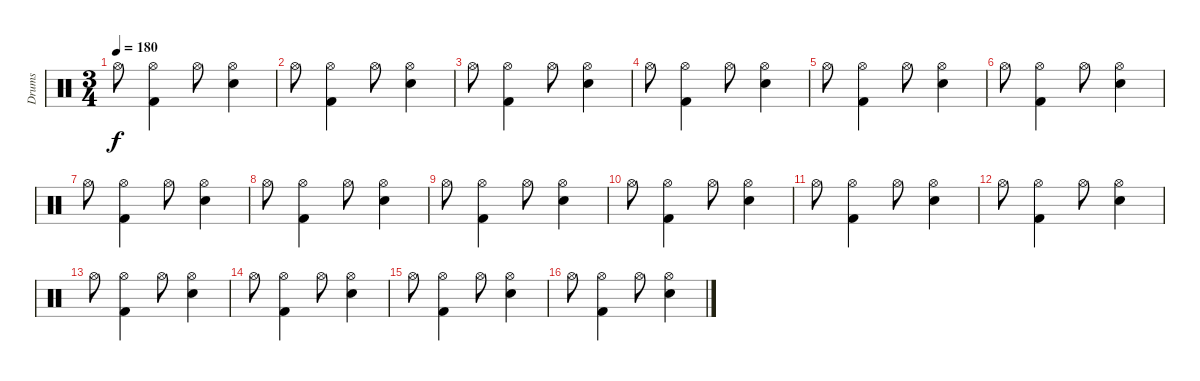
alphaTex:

\track ("Drums" "Drums") {instrument percussion}
\staff {score}
\articulation defaults
\ts (3 4)
\tempo 180
\clef neutral
\ks c "Hi-Hat (open)".8{dy f}
("Hi-Hat (open)" "Kick (hit) 2").4 "Hi-Hat (open)".8 ("Hi-Hat (open)" "Snare (hit) 2").4 |
"Hi-Hat (open)".8 ("Hi-Hat (open)" "Kick (hit) 2").4 "Hi-Hat (open)".8 ("Hi-Hat (open)" "Snare (hit) 2").4 |
"Hi-Hat (open)".8 ("Hi-Hat (open)" "Kick (hit) 2").4 "Hi-Hat (open)".8 ("Hi-Hat (open)" "Snare (hit) 2").4 |
"Hi-Hat (open)".8 ("Hi-Hat (open)" "Kick (hit) 2").4 "Hi-Hat (open)".8 ("Hi-Hat (open)" "Snare (hit) 2").4 |
"Hi-Hat (open)".8 ("Hi-Hat (open)" "Kick (hit) 2").4 "Hi-Hat (open)".8 ("Hi-Hat (open)" "Snare (hit) 2").4 |
"Hi-Hat (open)".8 ("Hi-Hat (open)" "Kick (hit) 2").4 "Hi-Hat (open)".8 ("Hi-Hat (open)" "Snare (hit) 2").4 |
"Hi-Hat (open)".8 ("Hi-Hat (open)" "Kick (hit) 2").4 "Hi-Hat (open)".8 ("Hi-Hat (open)" "Snare (hit) 2").4 |
"Hi-Hat (open)".8 ("Hi-Hat (open)" "Kick (hit) 2").4 "Hi-Hat (open)".8 ("Hi-Hat (open)" "Snare (hit) 2").4 |
"Hi-Hat (open)".8 ("Hi-Hat (open)" "Kick (hit) 2").4 "Hi-Hat (open)".8 ("Hi-Hat (open)" "Snare (hit) 2").4 |
"Hi-Hat (open)".8 ("Hi-Hat (open)" "Kick (hit) 2").4 "Hi-Hat (open)".8 ("Hi-Hat (open)" "Snare (hit) 2").4 |
"Hi-Hat (open)".8 ("Hi-Hat (open)" "Kick (hit) 2").4 "Hi-Hat (open)".8 ("Hi-Hat (open)" "Snare (hit) 2").4 |
"Hi-Hat (open)".8 ("Hi-Hat (open)" "Kick (hit) 2").4 "Hi-Hat (open)".8 ("Hi-Hat (open)" "Snare (hit) 2").4 |
"Hi-Hat (open)".8 ("Hi-Hat (open)" "Kick (hit) 2").4 "Hi-Hat (open)".8 ("Hi-Hat (open)" "Snare (hit) 2").4 |
"Hi-Hat (open)".8 ("Hi-Hat (open)" "Kick (hit) 2").4 "Hi-Hat (open)".8 ("Hi-Hat (open)" "Snare (hit) 2").4 |
"Hi-Hat (open)".8 ("Hi-Hat (open)" "Kick (hit) 2").4 "Hi-Hat (open)".8 ("Hi-Hat (open)" "Snare (hit) 2").4 |
"Hi-Hat (open)".8 ("Hi-Hat (open)" "Kick (hit) 2").4 "Hi-Hat (open)".8 ("Hi-Hat (open)" "Snare (hit) 2").4
